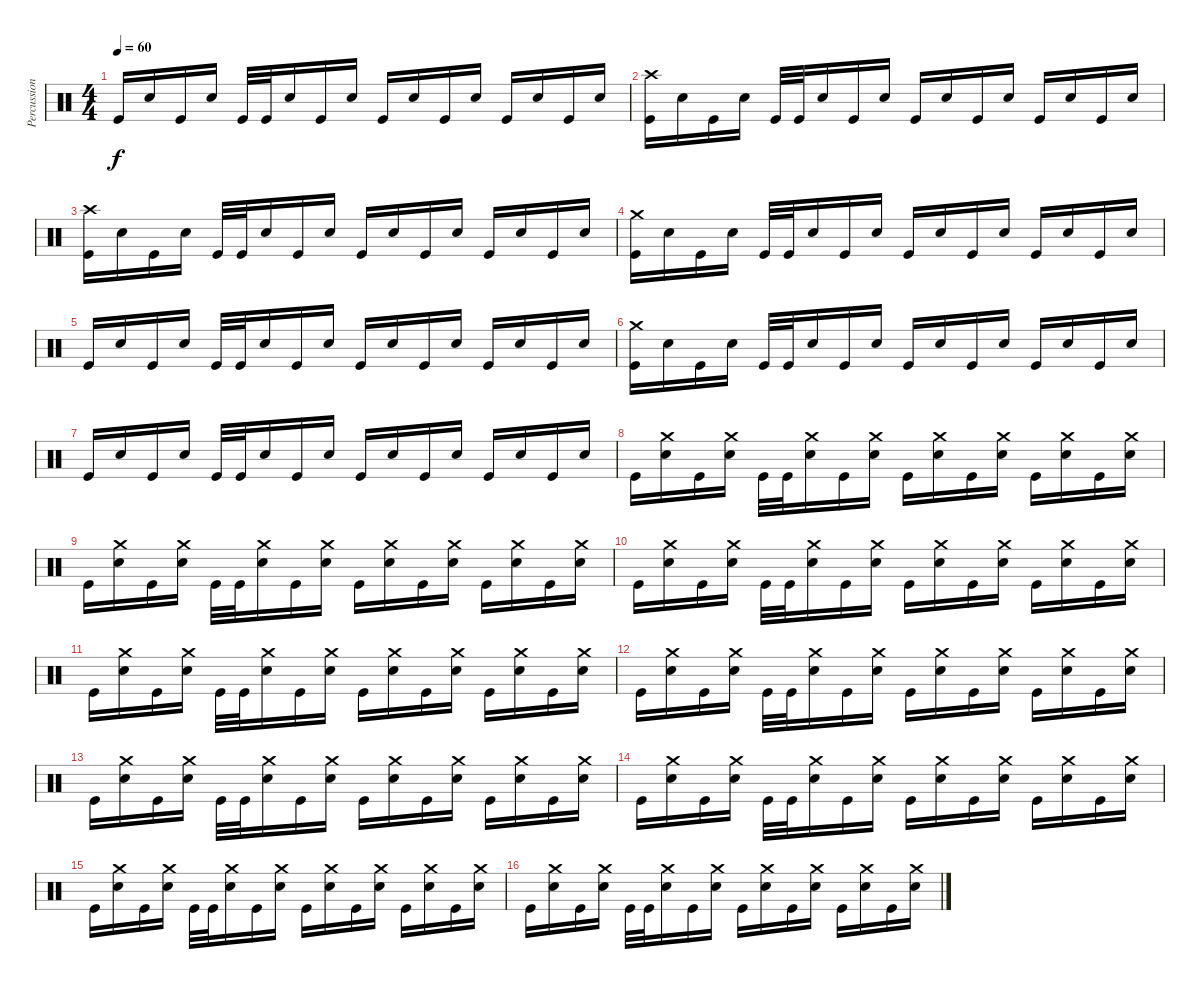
\track ("Percussions" "Percussion") {instrument percussion}
\staff {score}
\articulation defaults
\ts (4 4)
\tempo 60
\clef neutral
\ks c "Kick (hit)".16{dy f} "Hand Clap (hit)".16 "Kick (hit)".16 "Hand Clap (hit)".16 "Kick (hit)".32 "Kick (hit)".32 "Hand Clap (hit)".16 "Kick (hit)".16 "Hand Clap (hit)".16 "Kick (hit)".16 "Hand Clap (hit)".16 "Kick (hit)".16 "Hand Clap (hit)".16 "Kick (hit)".16 "Hand Clap (hit)".16 "Kick (hit)".16 "Hand Clap (hit)".16
|
("Crash high (hit)" "Kick (hit)").16 "Hand Clap (hit)".16 "Kick (hit)".16 "Hand Clap (hit)".16 "Kick (hit)".32 "Kick (hit)".32 "Hand Clap (hit)".16 "Kick (hit)".16 "Hand Clap (hit)".16 "Kick (hit)".16 "Hand Clap (hit)".16 "Kick (hit)".16 "Hand Clap (hit)".16 "Kick (hit)".16 "Hand Clap (hit)".16 "Kick (hit)".16 "Hand Clap (hit)".16 |
("Crash high (hit)" "Kick (hit)").16 "Hand Clap (hit)".16 "Kick (hit)".16 "Hand Clap (hit)".16 "Kick (hit)".32 "Kick (hit)".32 "Hand Clap (hit)".16 "Kick (hit)".16 "Hand Clap (hit)".16 "Kick (hit)".16 "Hand Clap (hit)".16 "Kick (hit)".16 "Hand Clap (hit)".16 "Kick (hit)".16 "Hand Clap (hit)".16 "Kick (hit)".16 "Hand Clap (hit)".16 |
("Crash medium (hit)" "Kick (hit)").16 "Hand Clap (hit)".16 "Kick (hit)".16 "Hand Clap (hit)".16 "Kick (hit)".32 "Kick (hit)".32 "Hand Clap (hit)".16 "Kick (hit)".16 "Hand Clap (hit)".16 "Kick (hit)".16 "Hand Clap (hit)".16 "Kick (hit)".16 "Hand Clap (hit)".16 "Kick (hit)".16 "Hand Clap (hit)".16 "Kick (hit)".16 "Hand Clap (hit)".16 |
"Kick (hit)".16 "Hand Clap (hit)".16 "Kick (hit)".16 "Hand Clap (hit)".16 "Kick (hit)".32 "Kick (hit)".32 "Hand Clap (hit)".16 "Kick (hit)".16 "Hand Clap (hit)".16 "Kick (hit)".16 "Hand Clap (hit)".16 "Kick (hit)".16 "Hand Clap (hit)".16 "Kick (hit)".16 "Hand Clap (hit)".16 "Kick (hit)".16 "Hand Clap (hit)".16 |
("Crash medium (hit)" "Kick (hit)").16 "Hand Clap (hit)".16 "Kick (hit)".16 "Hand Clap (hit)".16 "Kick (hit)".32 "Kick (hit)".32 "Hand Clap (hit)".16 "Kick (hit)".16 "Hand Clap (hit)".16 "Kick (hit)".16 "Hand Clap (hit)".16 "Kick (hit)".16 "Hand Clap (hit)".16 "Kick (hit)".16 "Hand Clap (hit)".16 "Kick (hit)".16 "Hand Clap (hit)".16 |
"Kick (hit)".16 "Hand Clap (hit)".16 "Kick (hit)".16 "Hand Clap (hit)".16 "Kick (hit)".32 "Kick (hit)".32 "Hand Clap (hit)".16 "Kick (hit)".16 "Hand Clap (hit)".16 "Kick (hit)".16 "Hand Clap (hit)".16 "Kick (hit)".16 "Hand Clap (hit)".16 "Kick (hit)".16 "Hand Clap (hit)".16 "Kick (hit)".16 "Hand Clap (hit)".16 |
"Kick (hit)".16 ("Crash medium (hit)" "Electric Snare (hit)").16 "Kick (hit)".16 ("Crash medium (hit)" "Electric Snare (hit)").16 "Kick (hit)".32 "Kick (hit)".32 ("Crash medium (hit)" "Electric Snare (hit)").16 "Kick (hit)".16 ("Crash medium (hit)" "Electric Snare (hit)").16 "Kick (hit)".16 ("Crash medium (hit)" "Electric Snare (hit)").16 "Kick (hit)".16 ("Crash medium (hit)" "Electric Snare (hit)").16 "Kick (hit)".16 ("Crash medium (hit)" "Electric Snare (hit)").16 "Kick (hit)".16 ("Crash medium (hit)" "Electric Snare (hit)").16 |
"Kick (hit)".16 ("Crash medium (hit)" "Electric Snare (hit)").16 "Kick (hit)".16 ("Crash medium (hit)" "Electric Snare (hit)").16 "Kick (hit)".32 "Kick (hit)".32 ("Crash medium (hit)" "Electric Snare (hit)").16 "Kick (hit)".16 ("Crash medium (hit)" "Electric Snare (hit)").16 "Kick (hit)".16 ("Crash medium (hit)" "Electric Snare (hit)").16 "Kick (hit)".16 ("Crash medium (hit)" "Electric Snare (hit)").16 "Kick (hit)".16 ("Crash medium (hit)" "Electric Snare (hit)").16 "Kick (hit)".16 ("Crash medium (hit)" "Electric Snare (hit)").16 |
"Kick (hit)".16 ("Crash medium (hit)" "Electric Snare (hit)").16 "Kick (hit)".16 ("Crash medium (hit)" "Electric Snare (hit)").16 "Kick (hit)".32 "Kick (hit)".32 ("Crash medium (hit)" "Electric Snare (hit)").16 "Kick (hit)".16 ("Crash medium (hit)" "Electric Snare (hit)").16 "Kick (hit)".16 ("Crash medium (hit)" "Electric Snare (hit)").16 "Kick (hit)".16 ("Crash medium (hit)" "Electric Snare (hit)").16 "Kick (hit)".16 ("Crash medium (hit)" "Electric Snare (hit)").16 "Kick (hit)".16 ("Crash medium (hit)" "Electric Snare (hit)").16 |
"Kick (hit)".16 ("Crash medium (hit)" "Electric Snare (hit)").16 "Kick (hit)".16 ("Crash medium (hit)" "Electric Snare (hit)").16 "Kick (hit)".32 "Kick (hit)".32 ("Crash medium (hit)" "Electric Snare (hit)").16 "Kick (hit)".16 ("Crash medium (hit)" "Electric Snare (hit)").16 "Kick (hit)".16 ("Crash medium (hit)" "Electric Snare (hit)").16 "Kick (hit)".16 ("Crash medium (hit)" "Electric Snare (hit)").16 "Kick (hit)".16 ("Crash medium (hit)" "Electric Snare (hit)").16 "Kick (hit)".16 ("Crash medium (hit)" "Electric Snare (hit)").16 |
"Kick (hit)".16 ("Crash medium (hit)" "Electric Snare (hit)").16 "Kick (hit)".16 ("Crash medium (hit)" "Electric Snare (hit)").16 "Kick (hit)".32 "Kick (hit)".32 ("Crash medium (hit)" "Electric Snare (hit)").16 "Kick (hit)".16 ("Crash medium (hit)" "Electric Snare (hit)").16 "Kick (hit)".16 ("Crash medium (hit)" "Electric Snare (hit)").16 "Kick (hit)".16 ("Crash medium (hit)" "Electric Snare (hit)").16 "Kick (hit)".16 ("Crash medium (hit)" "Electric Snare (hit)").16 "Kick (hit)".16 ("Crash medium (hit)" "Electric Snare (hit)").16 |
"Kick (hit)".16 ("Crash medium (hit)" "Electric Snare (hit)").16 "Kick (hit)".16 ("Crash medium (hit)" "Electric Snare (hit)").16 "Kick (hit)".32 "Kick (hit)".32 ("Crash medium (hit)" "Electric Snare (hit)").16 "Kick (hit)".16 ("Crash medium (hit)" "Electric Snare (hit)").16 "Kick (hit)".16 ("Crash medium (hit)" "Electric Snare (hit)").16 "Kick (hit)".16 ("Crash medium (hit)" "Electric Snare (hit)").16 "Kick (hit)".16 ("Crash medium (hit)" "Electric Snare (hit)").16 "Kick (hit)".16 ("Crash medium (hit)" "Electric Snare (hit)").16 |
"Kick (hit)".16 ("Crash medium (hit)" "Electric Snare (hit)").16 "Kick (hit)".16 ("Crash medium (hit)" "Electric Snare (hit)").16 "Kick (hit)".32 "Kick (hit)".32 ("Crash medium (hit)" "Electric Snare (hit)").16 "Kick (hit)".16 ("Crash medium (hit)" "Electric Snare (hit)").16 "Kick (hit)".16 ("Crash medium (hit)" "Electric Snare (hit)").16 "Kick (hit)".16 ("Crash medium (hit)" "Electric Snare (hit)").16 "Kick (hit)".16 ("Crash medium (hit)" "Electric Snare (hit)").16 "Kick (hit)".16 ("Crash medium (hit)" "Electric Snare (hit)").16 |
"Kick (hit)".16 ("Crash medium (hit)" "Electric Snare (hit)").16 "Kick (hit)".16 ("Crash medium (hit)" "Electric Snare (hit)").16 "Kick (hit)".32 "Kick (hit)".32 ("Crash medium (hit)" "Electric Snare (hit)").16 "Kick (hit)".16 ("Crash medium (hit)" "Electric Snare (hit)").16 "Kick (hit)".16 ("Crash medium (hit)" "Electric Snare (hit)").16 "Kick (hit)".16 ("Crash medium (hit)" "Electric Snare (hit)").16 "Kick (hit)".16 ("Crash medium (hit)" "Electric Snare (hit)").16 "Kick (hit)".16 ("Crash medium (hit)" "Electric Snare (hit)").16 |
"Kick (hit)".16 ("Crash medium (hit)" "Electric Snare (hit)").16 "Kick (hit)".16 ("Crash medium (hit)" "Electric Snare (hit)").16 "Kick (hit)".32 "Kick (hit)".32 ("Crash medium (hit)" "Electric Snare (hit)").16 "Kick (hit)".16 ("Crash medium (hit)" "Electric Snare (hit)").16 "Kick (hit)".16 ("Crash medium (hit)" "Electric Snare (hit)").16 "Kick (hit)".16 ("Crash medium (hit)" "Electric Snare (hit)").16 "Kick (hit)".16 ("Crash medium (hit)" "Electric Snare (hit)").16 "Kick (hit)".16 ("Crash medium (hit)" "Electric Snare (hit)").16
